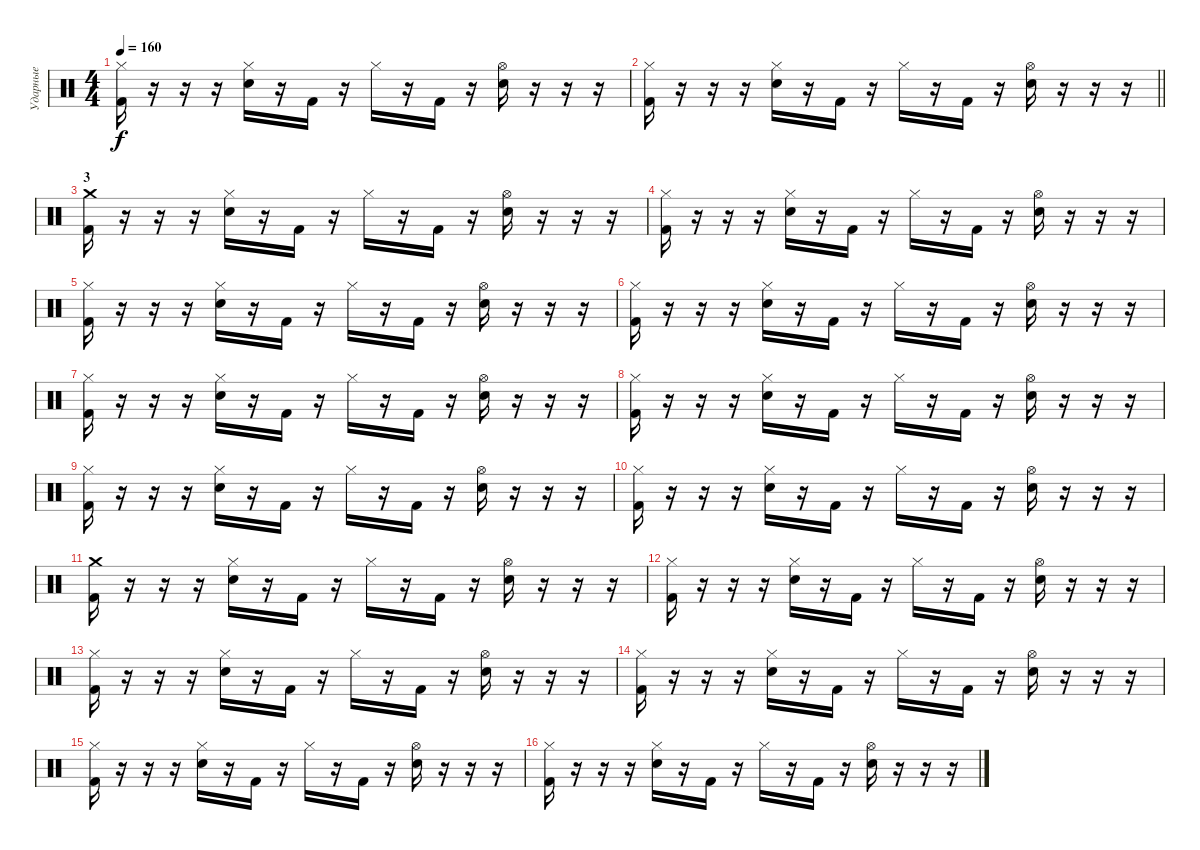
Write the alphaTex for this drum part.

\track ("Ударные" "Ударные") {instrument percussion}
\staff {score}
\articulation defaults
\ts (4 4)
\tempo 160
\clef neutral
\ks c
("Hi-Hat (closed)" "Kick (hit) 2").16{dy f} r.16 r.16 r.16 ("Hi-Hat (closed)" "Electric Snare (hit)").16 r.16 "Kick (hit) 2".16 r.16 "Hi-Hat (closed)".16 r.16 "Kick (hit) 2".16 r.16 ("Hi-Hat (open)" "Electric Snare (hit)").16 r.16 r.16 r.16 |
\barLineRight lightlight
("Hi-Hat (closed)" "Kick (hit) 2").16 r.16 r.16 r.16 ("Hi-Hat (closed)" "Electric Snare (hit)").16 r.16 "Kick (hit) 2".16 r.16 "Hi-Hat (closed)".16 r.16 "Kick (hit) 2".16 r.16 ("Hi-Hat (open)" "Electric Snare (hit)").16 r.16 r.16 r.16 |
\section ("" "3")
("Crash medium (hit)" "Kick (hit) 2").16 r.16 r.16 r.16 ("Hi-Hat (closed)" "Electric Snare (hit)").16 r.16 "Kick (hit) 2".16 r.16 "Hi-Hat (closed)".16 r.16 "Kick (hit) 2".16 r.16 ("Hi-Hat (open)" "Electric Snare (hit)").16 r.16 r.16 r.16 |
("Hi-Hat (closed)" "Kick (hit) 2").16 r.16 r.16 r.16 ("Hi-Hat (closed)" "Electric Snare (hit)").16 r.16 "Kick (hit) 2".16 r.16 "Hi-Hat (closed)".16 r.16 "Kick (hit) 2".16 r.16 ("Hi-Hat (open)" "Electric Snare (hit)").16 r.16 r.16 r.16 |
("Hi-Hat (closed)" "Kick (hit) 2").16 r.16 r.16 r.16 ("Hi-Hat (closed)" "Electric Snare (hit)").16 r.16 "Kick (hit) 2".16 r.16 "Hi-Hat (closed)".16 r.16 "Kick (hit) 2".16 r.16 ("Hi-Hat (open)" "Electric Snare (hit)").16 r.16 r.16 r.16 |
("Hi-Hat (closed)" "Kick (hit) 2").16 r.16 r.16 r.16 ("Hi-Hat (closed)" "Electric Snare (hit)").16 r.16 "Kick (hit) 2".16 r.16 "Hi-Hat (closed)".16 r.16 "Kick (hit) 2".16 r.16 ("Hi-Hat (open)" "Electric Snare (hit)").16 r.16 r.16 r.16 |
("Hi-Hat (closed)" "Kick (hit) 2").16 r.16 r.16 r.16 ("Hi-Hat (closed)" "Electric Snare (hit)").16 r.16 "Kick (hit) 2".16 r.16 "Hi-Hat (closed)".16 r.16 "Kick (hit) 2".16 r.16 ("Hi-Hat (open)" "Electric Snare (hit)").16 r.16 r.16 r.16 |
("Hi-Hat (closed)" "Kick (hit) 2").16 r.16 r.16 r.16 ("Hi-Hat (closed)" "Electric Snare (hit)").16 r.16 "Kick (hit) 2".16 r.16 "Hi-Hat (closed)".16 r.16 "Kick (hit) 2".16 r.16 ("Hi-Hat (open)" "Electric Snare (hit)").16 r.16 r.16 r.16 |
("Hi-Hat (closed)" "Kick (hit) 2").16 r.16 r.16 r.16 ("Hi-Hat (closed)" "Electric Snare (hit)").16 r.16 "Kick (hit) 2".16 r.16 "Hi-Hat (closed)".16 r.16 "Kick (hit) 2".16 r.16 ("Hi-Hat (open)" "Electric Snare (hit)").16 r.16 r.16 r.16 |
("Hi-Hat (closed)" "Kick (hit) 2").16 r.16 r.16 r.16 ("Hi-Hat (closed)" "Electric Snare (hit)").16 r.16 "Kick (hit) 2".16 r.16 "Hi-Hat (closed)".16 r.16 "Kick (hit) 2".16 r.16 ("Hi-Hat (open)" "Electric Snare (hit)").16 r.16 r.16 r.16 |
("Crash medium (hit)" "Kick (hit) 2").16 r.16 r.16 r.16 ("Hi-Hat (closed)" "Electric Snare (hit)").16 r.16 "Kick (hit) 2".16 r.16 "Hi-Hat (closed)".16 r.16 "Kick (hit) 2".16 r.16 ("Hi-Hat (open)" "Electric Snare (hit)").16 r.16 r.16 r.16 |
("Hi-Hat (closed)" "Kick (hit) 2").16 r.16 r.16 r.16 ("Hi-Hat (closed)" "Electric Snare (hit)").16 r.16 "Kick (hit) 2".16 r.16 "Hi-Hat (closed)".16 r.16 "Kick (hit) 2".16 r.16 ("Hi-Hat (open)" "Electric Snare (hit)").16 r.16 r.16 r.16 |
("Hi-Hat (closed)" "Kick (hit) 2").16 r.16 r.16 r.16 ("Hi-Hat (closed)" "Electric Snare (hit)").16 r.16 "Kick (hit) 2".16 r.16 "Hi-Hat (closed)".16 r.16 "Kick (hit) 2".16 r.16 ("Hi-Hat (open)" "Electric Snare (hit)").16 r.16 r.16 r.16 |
("Hi-Hat (closed)" "Kick (hit) 2").16 r.16 r.16 r.16 ("Hi-Hat (closed)" "Electric Snare (hit)").16 r.16 "Kick (hit) 2".16 r.16 "Hi-Hat (closed)".16 r.16 "Kick (hit) 2".16 r.16 ("Hi-Hat (open)" "Electric Snare (hit)").16 r.16 r.16 r.16 |
("Hi-Hat (closed)" "Kick (hit) 2").16 r.16 r.16 r.16 ("Hi-Hat (closed)" "Electric Snare (hit)").16 r.16 "Kick (hit) 2".16 r.16 "Hi-Hat (closed)".16 r.16 "Kick (hit) 2".16 r.16 ("Hi-Hat (open)" "Electric Snare (hit)").16 r.16 r.16 r.16 |
("Hi-Hat (closed)" "Kick (hit) 2").16 r.16 r.16 r.16 ("Hi-Hat (closed)" "Electric Snare (hit)").16 r.16 "Kick (hit) 2".16 r.16 "Hi-Hat (closed)".16 r.16 "Kick (hit) 2".16 r.16 ("Hi-Hat (open)" "Electric Snare (hit)").16 r.16 r.16 r.16
